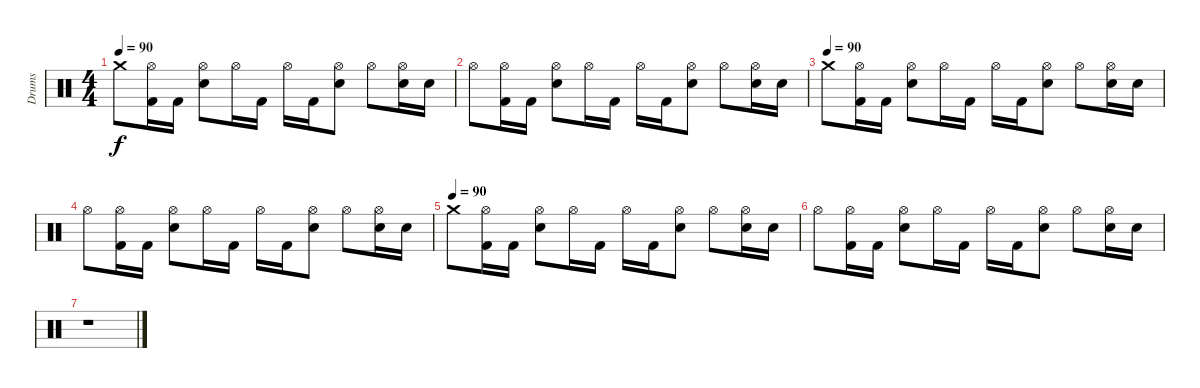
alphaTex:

\track ("Drums" "Drums") {instrument percussion}
\staff {score}
\articulation defaults
\ts (4 4)
\tempo 90
\clef neutral
\ks c "Crash medium (hit)".8{dy f}
("Hi-Hat (open)" "Kick (hit) 2").16 "Kick (hit) 2".16 ("Hi-Hat (open)" "Snare (hit) 2").8 "Hi-Hat (open)".16 "Kick (hit) 2".16 "Hi-Hat (open)".16 "Kick (hit) 2".16 ("Hi-Hat (open)" "Snare (hit) 2").8 "Hi-Hat (open)".8 ("Hi-Hat (open)" "Snare (hit) 2").16 "Snare (hit) 2".16 |
"Hi-Hat (open)".8 ("Hi-Hat (open)" "Kick (hit) 2").16 "Kick (hit) 2".16 ("Hi-Hat (open)" "Snare (hit) 2").8 "Hi-Hat (open)".16 "Kick (hit) 2".16 "Hi-Hat (open)".16 "Kick (hit) 2".16 ("Hi-Hat (open)" "Snare (hit) 2").8 "Hi-Hat (open)".8 ("Hi-Hat (open)" "Snare (hit) 2").16 "Snare (hit) 2".16 |
\tempo (90)
"Crash medium (hit)".8 ("Hi-Hat (open)" "Kick (hit) 2").16 "Kick (hit) 2".16 ("Hi-Hat (open)" "Snare (hit) 2").8 "Hi-Hat (open)".16 "Kick (hit) 2".16 "Hi-Hat (open)".16 "Kick (hit) 2".16 ("Hi-Hat (open)" "Snare (hit) 2").8 "Hi-Hat (open)".8 ("Hi-Hat (open)" "Snare (hit) 2").16 "Snare (hit) 2".16 |
"Hi-Hat (open)".8 ("Hi-Hat (open)" "Kick (hit) 2").16 "Kick (hit) 2".16 ("Hi-Hat (open)" "Snare (hit) 2").8 "Hi-Hat (open)".16 "Kick (hit) 2".16 "Hi-Hat (open)".16 "Kick (hit) 2".16 ("Hi-Hat (open)" "Snare (hit) 2").8 "Hi-Hat (open)".8 ("Hi-Hat (open)" "Snare (hit) 2").16 "Snare (hit) 2".16 |
\tempo (90)
"Crash medium (hit)".8 ("Hi-Hat (open)" "Kick (hit) 2").16 "Kick (hit) 2".16 ("Hi-Hat (open)" "Snare (hit) 2").8 "Hi-Hat (open)".16 "Kick (hit) 2".16 "Hi-Hat (open)".16 "Kick (hit) 2".16 ("Hi-Hat (open)" "Snare (hit) 2").8 "Hi-Hat (open)".8 ("Hi-Hat (open)" "Snare (hit) 2").16 "Snare (hit) 2".16 |
"Hi-Hat (open)".8 ("Hi-Hat (open)" "Kick (hit) 2").16 "Kick (hit) 2".16 ("Hi-Hat (open)" "Snare (hit) 2").8 "Hi-Hat (open)".16 "Kick (hit) 2".16 "Hi-Hat (open)".16 "Kick (hit) 2".16 ("Hi-Hat (open)" "Snare (hit) 2").8 "Hi-Hat (open)".8 ("Hi-Hat (open)" "Snare (hit) 2").16 "Snare (hit) 2".16 |
r.1
